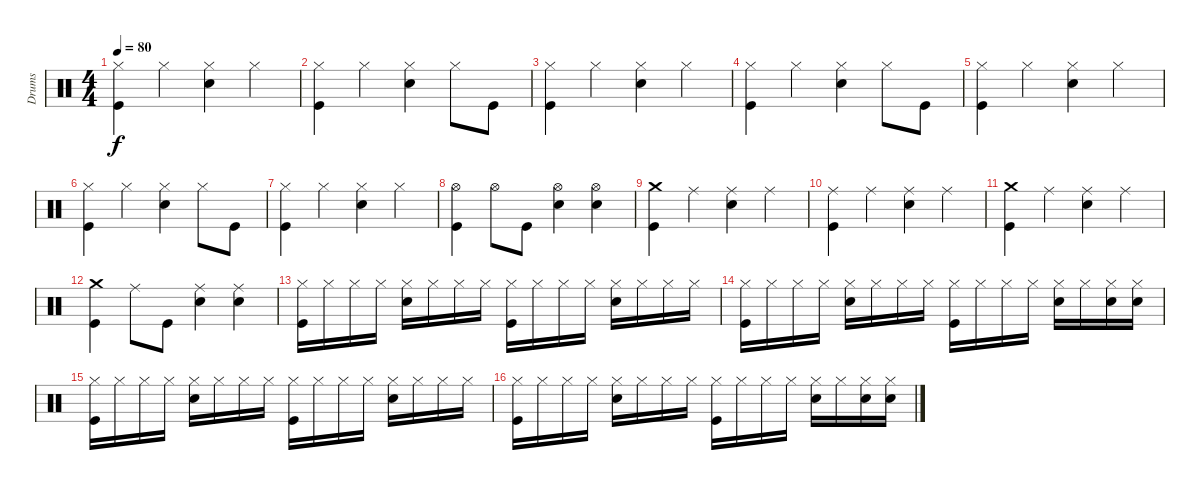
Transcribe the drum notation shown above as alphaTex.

\track ("Drums" "Drums") {instrument percussion}
\staff {score}
\articulation defaults
\ts (4 4)
\tempo 80
\clef neutral
\ks c
("Hi-Hat (closed)" "Kick (hit)").4{dy f} "Hi-Hat (closed)".4 ("Hi-Hat (closed)" "Snare (hit) 2").4 "Hi-Hat (closed)".4 |
("Hi-Hat (closed)" "Kick (hit)").4 "Hi-Hat (closed)".4 ("Hi-Hat (closed)" "Snare (hit) 2").4 "Hi-Hat (closed)".8 "Kick (hit)".8 |
("Hi-Hat (closed)" "Kick (hit)").4 "Hi-Hat (closed)".4 ("Hi-Hat (closed)" "Snare (hit) 2").4 "Hi-Hat (closed)".4 |
("Hi-Hat (closed)" "Kick (hit)").4 "Hi-Hat (closed)".4 ("Hi-Hat (closed)" "Snare (hit) 2").4 "Hi-Hat (closed)".8 "Kick (hit)".8 |
("Hi-Hat (closed)" "Kick (hit)").4 "Hi-Hat (closed)".4 ("Hi-Hat (closed)" "Snare (hit) 2").4 "Hi-Hat (closed)".4 |
("Hi-Hat (closed)" "Kick (hit)").4 "Hi-Hat (closed)".4 ("Hi-Hat (closed)" "Snare (hit) 2").4 "Hi-Hat (closed)".8 "Kick (hit)".8 |
("Hi-Hat (closed)" "Kick (hit)").4 "Hi-Hat (closed)".4 ("Hi-Hat (closed)" "Snare (hit) 2").4 "Hi-Hat (closed)".4 |
("Hi-Hat (open)" "Kick (hit)").4 "Hi-Hat (open)".8 "Kick (hit)".8 ("Hi-Hat (open)" "Snare (hit) 2").4 ("Hi-Hat (open)" "Snare (hit) 2").4 |
("Crash medium (hit)" "Kick (hit)").4 "Ride (middle)".4 ("Ride (middle)" "Snare (hit) 2").4 "Ride (middle)".4 |
("Ride (middle)" "Kick (hit)").4 "Ride (middle)".4 ("Ride (middle)" "Snare (hit) 2").4 "Ride (middle)".4 |
("Crash medium (hit)" "Kick (hit)").4 "Ride (middle)".4 ("Ride (middle)" "Snare (hit) 2").4 "Ride (middle)".4 |
("Crash medium (hit)" "Kick (hit)").4 "Ride (middle)".8 "Kick (hit)".8 ("Ride (middle)" "Snare (hit) 2").4 ("Ride (middle)" "Snare (hit) 2").4 |
("Hi-Hat (closed)" "Kick (hit)").16 "Hi-Hat (closed)".16 "Hi-Hat (closed)".16 "Hi-Hat (closed)".16 ("Hi-Hat (closed)" "Snare (hit) 2").16 "Hi-Hat (closed)".16 "Hi-Hat (closed)".16 "Hi-Hat (closed)".16 ("Hi-Hat (closed)" "Kick (hit)").16 "Hi-Hat (closed)".16 "Hi-Hat (closed)".16 "Hi-Hat (closed)".16 ("Hi-Hat (closed)" "Snare (hit) 2").16 "Hi-Hat (closed)".16 "Hi-Hat (closed)".16 "Hi-Hat (closed)".16 |
("Hi-Hat (closed)" "Kick (hit)").16 "Hi-Hat (closed)".16 "Hi-Hat (closed)".16 "Hi-Hat (closed)".16 ("Hi-Hat (closed)" "Snare (hit) 2").16 "Hi-Hat (closed)".16 "Hi-Hat (closed)".16 "Hi-Hat (closed)".16 ("Hi-Hat (closed)" "Kick (hit)").16 "Hi-Hat (closed)".16 "Hi-Hat (closed)".16 "Hi-Hat (closed)".16 ("Hi-Hat (closed)" "Snare (hit) 2").16 "Hi-Hat (closed)".16 ("Hi-Hat (closed)" "Snare (hit) 2").16 ("Hi-Hat (closed)" "Snare (hit) 2").16 |
("Hi-Hat (closed)" "Kick (hit)").16 "Hi-Hat (closed)".16 "Hi-Hat (closed)".16 "Hi-Hat (closed)".16 ("Hi-Hat (closed)" "Snare (hit) 2").16 "Hi-Hat (closed)".16 "Hi-Hat (closed)".16 "Hi-Hat (closed)".16 ("Hi-Hat (closed)" "Kick (hit)").16 "Hi-Hat (closed)".16 "Hi-Hat (closed)".16 "Hi-Hat (closed)".16 ("Hi-Hat (closed)" "Snare (hit) 2").16 "Hi-Hat (closed)".16 "Hi-Hat (closed)".16 "Hi-Hat (closed)".16 |
("Hi-Hat (closed)" "Kick (hit)").16 "Hi-Hat (closed)".16 "Hi-Hat (closed)".16 "Hi-Hat (closed)".16 ("Hi-Hat (closed)" "Snare (hit) 2").16 "Hi-Hat (closed)".16 "Hi-Hat (closed)".16 "Hi-Hat (closed)".16 ("Hi-Hat (closed)" "Kick (hit)").16 "Hi-Hat (closed)".16 "Hi-Hat (closed)".16 "Hi-Hat (closed)".16 ("Hi-Hat (closed)" "Snare (hit) 2").16 "Hi-Hat (closed)".16 ("Hi-Hat (closed)" "Snare (hit) 2").16 ("Hi-Hat (closed)" "Snare (hit) 2").16
